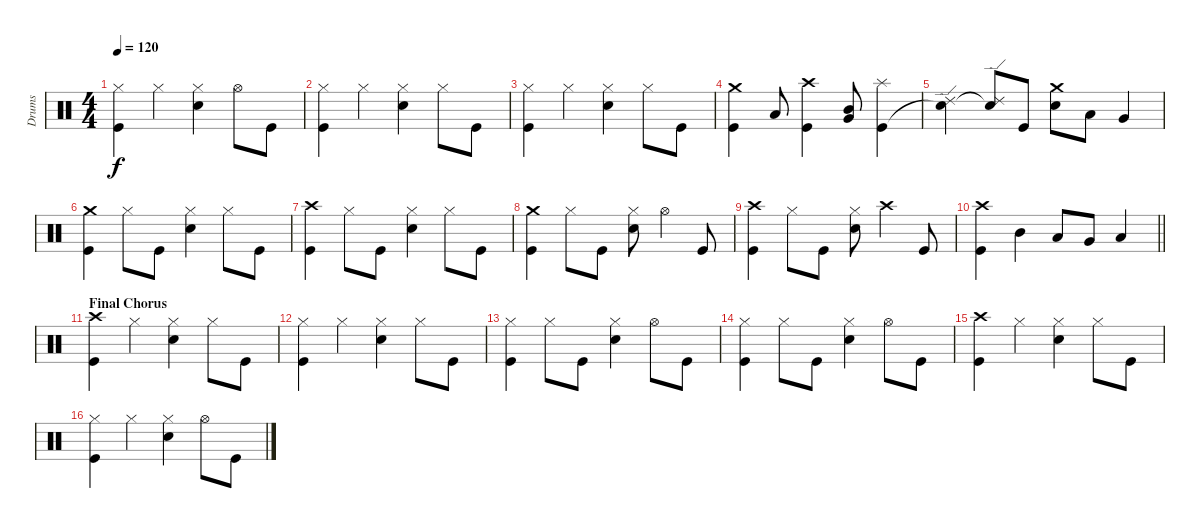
\track ("Drums" "Drums") {instrument percussion}
\staff {score}
\articulation defaults
\ts (4 4)
\tempo 120
\clef neutral
\ks c
("Kick (hit)" "Hi-Hat (closed)").4{dy f} "Hi-Hat (closed)".4 ("Snare (hit) 2" "Hi-Hat (closed)").4 "Hi-Hat (open)".8 "Kick (hit)".8 |
("Kick (hit)" "Hi-Hat (closed)").4 "Hi-Hat (closed)".4 ("Snare (hit) 2" "Hi-Hat (closed)").4 "Hi-Hat (closed)".8 "Kick (hit)".8 |
("Kick (hit)" "Hi-Hat (closed)").4 "Hi-Hat (closed)".4 ("Snare (hit) 2" "Hi-Hat (closed)").4 "Hi-Hat (closed)".8 "Kick (hit)".8 |
("Kick (hit)" "Crash medium (hit)").4 "Low Tom (hit)".8 ("Kick (hit)" "Crash high (hit)").4 ("Mid Tom (hit)" "Very Low Tom (hit)").8 ("Kick (hit)" "Splash (hit)").4 |
("Snare (hit)"{t} "Ride (edge) 2").4 ("Snare (hit)"{t} "Ride (edge) 2").8 "Kick (hit)".8 ("Snare (hit) 2" "Crash medium (hit)").8 "Low Tom (hit)".8 "Very Low Tom (hit)".4 |
("Kick (hit)" "Crash medium (hit)").4 "Hi-Hat (closed)".8 "Kick (hit)".8 ("Snare (hit) 2" "Hi-Hat (closed)").4 "Hi-Hat (closed)".8 "Kick (hit)".8 |
("Kick (hit)" "Crash high (hit)").4 "Hi-Hat (closed)".8 "Kick (hit)".8 ("Snare (hit) 2" "Hi-Hat (closed)").4 "Hi-Hat (closed)".8 "Kick (hit)".8 |
("Kick (hit)" "Crash medium (hit)").4 "Hi-Hat (closed)".8 "Kick (hit)".8 ("Snare (hit) 2" "Hi-Hat (closed)").8 "Hi-Hat (open)".4 "Kick (hit)".8 |
("Kick (hit)" "Crash high (hit)").4 "Hi-Hat (closed)".8 "Kick (hit)".8 ("Snare (hit) 2" "Hi-Hat (closed)").8 "Crash high (hit)".4 "Kick (hit)".8 |
\barLineRight lightlight
("Kick (hit)" "Crash high (hit)").4 "Mid Tom (hit)".4 "Low Tom (hit)".8 "Very Low Tom (hit)".8 "Low Floor Tom (hit)".4 |
\section ("" "Final Chorus")
("Kick (hit)" "Crash high (hit)").4 "Hi-Hat (closed)".4 ("Snare (hit) 2" "Hi-Hat (closed)").4 "Hi-Hat (closed)".8 "Kick (hit)".8 |
("Kick (hit)" "Hi-Hat (closed)").4 "Hi-Hat (closed)".4 ("Snare (hit) 2" "Hi-Hat (closed)").4 "Hi-Hat (closed)".8 "Kick (hit)".8 |
("Kick (hit)" "Hi-Hat (closed)").4 "Hi-Hat (closed)".8 "Kick (hit)".8 ("Snare (hit) 2" "Hi-Hat (closed)").4 "Hi-Hat (open)".8 "Kick (hit)".8 |
("Kick (hit)" "Hi-Hat (closed)").4 "Hi-Hat (closed)".8 "Kick (hit)".8 ("Snare (hit) 2" "Hi-Hat (closed)").4 "Hi-Hat (open)".8 "Kick (hit)".8 |
("Kick (hit)" "Crash high (hit)").4 "Hi-Hat (closed)".4 ("Snare (hit) 2" "Hi-Hat (closed)").4 "Hi-Hat (closed)".8 "Kick (hit)".8 |
("Kick (hit)" "Hi-Hat (closed)").4 "Hi-Hat (closed)".4 ("Snare (hit) 2" "Hi-Hat (closed)").4 "Hi-Hat (open)".8 "Kick (hit)".8
